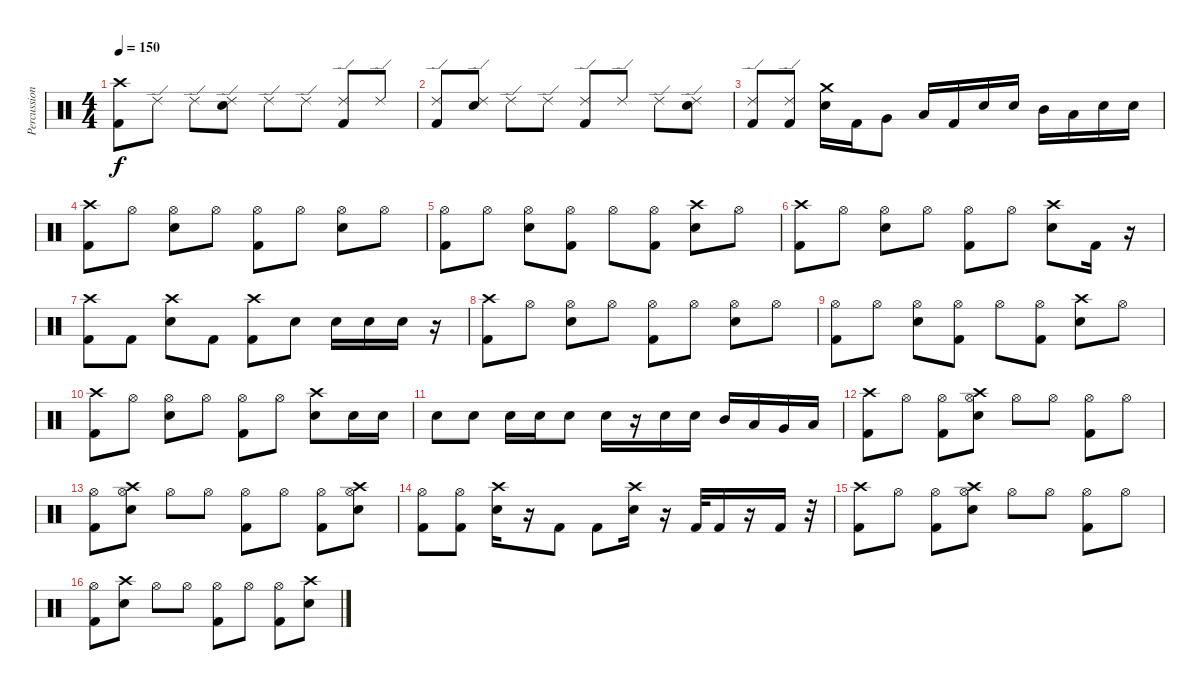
\track ("Percussion" "Percussion") {instrument percussion}
\staff {score}
\articulation defaults
\ts (4 4)
\tempo 150
\clef neutral
\ks c
("Crash high (hit)" "Kick (hit) 2").8{dy f} "Ride (edge) 2".8 "Ride (edge) 2".8 ("Ride (edge) 2" "Snare (hit) 2").8 "Ride (edge) 2".8 "Ride (edge) 2".8 ("Ride (edge) 2" "Kick (hit) 2").8 "Ride (edge) 2".8 |
("Ride (edge) 2" "Kick (hit) 2").8 ("Ride (edge) 2" "Snare (hit) 2").8 "Ride (edge) 2".8 "Ride (edge) 2".8 ("Ride (edge) 2" "Kick (hit) 2").8 "Ride (edge) 2".8 "Ride (edge) 2".8 ("Ride (edge) 2" "Snare (hit) 2").8 |
("Ride (edge) 2" "Kick (hit) 2").8 ("Ride (edge) 2" "Kick (hit) 2").8 ("Crash medium (hit)" "Snare (hit) 2").16 "Kick (hit) 2".16 "Very Low Tom (hit)".8 "Low Floor Tom (hit)".16 "Kick (hit) 2".16 "Snare (hit) 2".16 "Snare (hit) 2".16 "Mid Tom (hit)".16 "Low Tom (hit)".16 "Snare (hit) 2".16 "Snare (hit) 2".16 |
("Crash high (hit)" "Kick (hit) 2").8 "Hi-Hat (open)".8 ("Hi-Hat (open)" "Snare (hit) 2").8 "Hi-Hat (open)".8 ("Hi-Hat (open)" "Kick (hit) 2").8 "Hi-Hat (open)".8 ("Hi-Hat (open)" "Snare (hit) 2").8 "Hi-Hat (open)".8 |
("Hi-Hat (open)" "Kick (hit) 2").8 "Hi-Hat (open)".8 ("Hi-Hat (open)" "Snare (hit) 2").8 ("Hi-Hat (open)" "Kick (hit) 2").8 "Hi-Hat (open)".8 ("Hi-Hat (open)" "Kick (hit) 2").8 ("Crash high (hit)" "Snare (hit) 2").8 "Hi-Hat (open)".8 |
("Crash high (hit)" "Kick (hit) 2").8 "Hi-Hat (open)".8 ("Hi-Hat (open)" "Snare (hit) 2").8 "Hi-Hat (open)".8 ("Hi-Hat (open)" "Kick (hit) 2").8 "Hi-Hat (open)".8 ("Crash high (hit)" "Snare (hit) 2").8 "Kick (hit) 2".16 r.16 |
("Crash high (hit)" "Kick (hit) 2").8 "Kick (hit) 2".8 ("Crash high (hit)" "Snare (hit) 2").8 "Kick (hit) 2".8 ("Crash high (hit)" "Kick (hit) 2").8 "Snare (hit) 2".8 "Snare (hit) 2".16 "Snare (hit) 2".16 "Snare (hit) 2".16 r.16 |
("Crash high (hit)" "Kick (hit) 2").8 "Hi-Hat (open)".8 ("Hi-Hat (open)" "Snare (hit) 2").8 "Hi-Hat (open)".8 ("Hi-Hat (open)" "Kick (hit) 2").8 "Hi-Hat (open)".8 ("Hi-Hat (open)" "Snare (hit) 2").8 "Hi-Hat (open)".8 |
("Hi-Hat (open)" "Kick (hit) 2").8 "Hi-Hat (open)".8 ("Hi-Hat (open)" "Snare (hit) 2").8 ("Hi-Hat (open)" "Kick (hit) 2").8 "Hi-Hat (open)".8 ("Hi-Hat (open)" "Kick (hit) 2").8 ("Crash high (hit)" "Snare (hit) 2").8 "Hi-Hat (open)".8 |
("Crash high (hit)" "Kick (hit) 2").8 "Hi-Hat (open)".8 ("Hi-Hat (open)" "Snare (hit) 2").8 "Hi-Hat (open)".8 ("Hi-Hat (open)" "Kick (hit) 2").8 "Hi-Hat (open)".8 ("Crash high (hit)" "Snare (hit) 2").8 "Snare (hit) 2".16 "Snare (hit) 2".16 |
"Snare (hit) 2".8 "Snare (hit) 2".8 "Snare (hit) 2".16 "Snare (hit) 2".16 "Snare (hit) 2".8 "Snare (hit) 2".16 r.16 "Snare (hit) 2".16 "Snare (hit) 2".16 "Mid Tom (hit)".16 "Low Tom (hit)".16 "Very Low Tom (hit)".16 "Low Floor Tom (hit)".16 |
("Crash high (hit)" "Kick (hit) 2").8 "Hi-Hat (open)".8 ("Hi-Hat (open)" "Kick (hit) 2").8 ("Crash high (hit)" "Hi-Hat (open)" "Snare (hit) 2").8 "Hi-Hat (open)".8 "Hi-Hat (open)".8 ("Hi-Hat (open)" "Kick (hit) 2").8 "Hi-Hat (open)".8 |
("Hi-Hat (open)" "Kick (hit) 2").8 ("Crash high (hit)" "Hi-Hat (open)" "Snare (hit) 2").8 "Hi-Hat (open)".8 "Hi-Hat (open)".8 ("Hi-Hat (open)" "Kick (hit) 2").8 "Hi-Hat (open)".8 ("Hi-Hat (open)" "Kick (hit) 2").8 ("Crash high (hit)" "Hi-Hat (open)" "Snare (hit) 2").8 |
("Hi-Hat (open)" "Kick (hit) 2").8 ("Hi-Hat (open)" "Kick (hit) 2").8 ("Crash high (hit)" "Snare (hit) 2").16 r.16 "Kick (hit) 2".8 "Kick (hit) 2".8 ("Crash high (hit)" "Snare (hit) 2").16 r.16 "Kick (hit) 2".32 "Kick (hit) 2".16 r.16 "Kick (hit) 2".16 r.32 |
("Crash high (hit)" "Kick (hit) 2").8 "Hi-Hat (open)".8 ("Hi-Hat (open)" "Kick (hit) 2").8 ("Crash high (hit)" "Hi-Hat (open)" "Snare (hit) 2").8 "Hi-Hat (open)".8 "Hi-Hat (open)".8 ("Hi-Hat (open)" "Kick (hit) 2").8 "Hi-Hat (open)".8 |
("Hi-Hat (open)" "Kick (hit) 2").8 ("Crash high (hit)" "Snare (hit) 2").8 "Hi-Hat (open)".8 "Hi-Hat (open)".8 ("Hi-Hat (open)" "Kick (hit) 2").8 "Hi-Hat (open)".8 ("Hi-Hat (open)" "Kick (hit) 2").8 ("Crash high (hit)" "Snare (hit) 2").8
